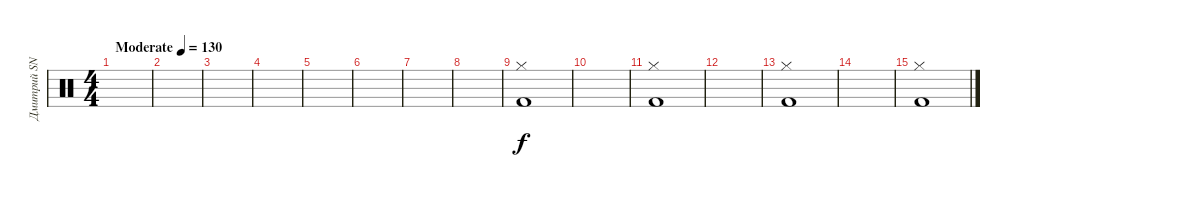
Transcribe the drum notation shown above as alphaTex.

\track ("Дмитрий SNAKE Хакимов" "Дмитрий SN") {instrument percussion}
\staff {score}
\articulation defaults
\ts (4 4)
\tempo (130 "Moderate")
\clef neutral
\ks c
|
|
|
|
|
|
|
|
("Hi-Hat (closed)" "Kick (hit) 2").1 |
|
("Hi-Hat (closed)" "Kick (hit) 2").1 |
|
("Hi-Hat (closed)" "Kick (hit) 2").1 |
|
("Hi-Hat (closed)" "Kick (hit) 2").1
